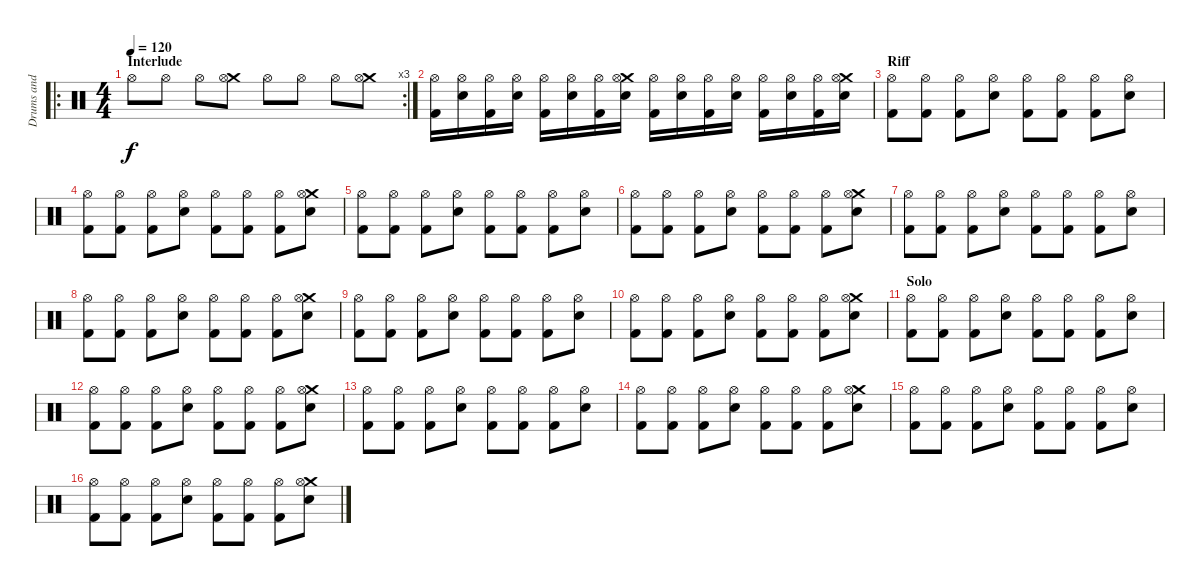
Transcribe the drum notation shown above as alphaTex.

\track ("Drums and Percussion" "Drums and ") {instrument percussion}
\staff {score}
\articulation defaults
\ro
\rc 3
\ts (4 4)
\section ("" "Interlude")
\tempo 120
\clef neutral
\ks c "Hi-Hat (open)".8{dy f} "Hi-Hat (open)".8 "Hi-Hat (open)".8
("Crash medium (hit)" "Hi-Hat (open)").8 "Hi-Hat (open)".8 "Hi-Hat (open)".8 "Hi-Hat (open)".8 ("Crash medium (hit)" "Hi-Hat (open)").8 |
("Hi-Hat (open)" "Kick (hit) 2").16 ("Hi-Hat (open)" "Electric Snare (hit)").16 ("Hi-Hat (open)" "Kick (hit) 2").16 ("Hi-Hat (open)" "Electric Snare (hit)").16 ("Hi-Hat (open)" "Kick (hit) 2").16 ("Hi-Hat (open)" "Electric Snare (hit)").16 ("Hi-Hat (open)" "Kick (hit) 2").16 ("Crash medium (hit)" "Hi-Hat (open)" "Electric Snare (hit)").16 ("Hi-Hat (open)" "Kick (hit) 2").16 ("Hi-Hat (open)" "Electric Snare (hit)").16 ("Hi-Hat (open)" "Kick (hit) 2").16 ("Hi-Hat (open)" "Electric Snare (hit)").16 ("Hi-Hat (open)" "Kick (hit) 2").16 ("Hi-Hat (open)" "Electric Snare (hit)").16 ("Hi-Hat (open)" "Kick (hit) 2").16 ("Crash medium (hit)" "Hi-Hat (open)" "Electric Snare (hit)").16 |
\section ("" "Riff")
("Hi-Hat (open)" "Kick (hit) 2").8 ("Hi-Hat (open)" "Kick (hit) 2").8 ("Hi-Hat (open)" "Kick (hit) 2").8 ("Hi-Hat (open)" "Electric Snare (hit)").8 ("Hi-Hat (open)" "Kick (hit) 2").8 ("Hi-Hat (open)" "Kick (hit) 2").8 ("Hi-Hat (open)" "Kick (hit) 2").8 ("Hi-Hat (open)" "Electric Snare (hit)").8 |
("Hi-Hat (open)" "Kick (hit) 2").8 ("Hi-Hat (open)" "Kick (hit) 2").8 ("Hi-Hat (open)" "Kick (hit) 2").8 ("Hi-Hat (open)" "Electric Snare (hit)").8 ("Hi-Hat (open)" "Kick (hit) 2").8 ("Hi-Hat (open)" "Kick (hit) 2").8 ("Hi-Hat (open)" "Kick (hit) 2").8 ("Crash medium (hit)" "Hi-Hat (open)" "Electric Snare (hit)").8 |
("Hi-Hat (open)" "Kick (hit) 2").8 ("Hi-Hat (open)" "Kick (hit) 2").8 ("Hi-Hat (open)" "Kick (hit) 2").8 ("Hi-Hat (open)" "Electric Snare (hit)").8 ("Hi-Hat (open)" "Kick (hit) 2").8 ("Hi-Hat (open)" "Kick (hit) 2").8 ("Hi-Hat (open)" "Kick (hit) 2").8 ("Hi-Hat (open)" "Electric Snare (hit)").8 |
("Hi-Hat (open)" "Kick (hit) 2").8 ("Hi-Hat (open)" "Kick (hit) 2").8 ("Hi-Hat (open)" "Kick (hit) 2").8 ("Hi-Hat (open)" "Electric Snare (hit)").8 ("Hi-Hat (open)" "Kick (hit) 2").8 ("Hi-Hat (open)" "Kick (hit) 2").8 ("Hi-Hat (open)" "Kick (hit) 2").8 ("Crash medium (hit)" "Hi-Hat (open)" "Electric Snare (hit)").8 |
("Hi-Hat (open)" "Kick (hit) 2").8 ("Hi-Hat (open)" "Kick (hit) 2").8 ("Hi-Hat (open)" "Kick (hit) 2").8 ("Hi-Hat (open)" "Electric Snare (hit)").8 ("Hi-Hat (open)" "Kick (hit) 2").8 ("Hi-Hat (open)" "Kick (hit) 2").8 ("Hi-Hat (open)" "Kick (hit) 2").8 ("Hi-Hat (open)" "Electric Snare (hit)").8 |
("Hi-Hat (open)" "Kick (hit) 2").8 ("Hi-Hat (open)" "Kick (hit) 2").8 ("Hi-Hat (open)" "Kick (hit) 2").8 ("Hi-Hat (open)" "Electric Snare (hit)").8 ("Hi-Hat (open)" "Kick (hit) 2").8 ("Hi-Hat (open)" "Kick (hit) 2").8 ("Hi-Hat (open)" "Kick (hit) 2").8 ("Crash medium (hit)" "Hi-Hat (open)" "Electric Snare (hit)").8 |
("Hi-Hat (open)" "Kick (hit) 2").8 ("Hi-Hat (open)" "Kick (hit) 2").8 ("Hi-Hat (open)" "Kick (hit) 2").8 ("Hi-Hat (open)" "Electric Snare (hit)").8 ("Hi-Hat (open)" "Kick (hit) 2").8 ("Hi-Hat (open)" "Kick (hit) 2").8 ("Hi-Hat (open)" "Kick (hit) 2").8 ("Hi-Hat (open)" "Electric Snare (hit)").8 |
("Hi-Hat (open)" "Kick (hit) 2").8 ("Hi-Hat (open)" "Kick (hit) 2").8 ("Hi-Hat (open)" "Kick (hit) 2").8 ("Hi-Hat (open)" "Electric Snare (hit)").8 ("Hi-Hat (open)" "Kick (hit) 2").8 ("Hi-Hat (open)" "Kick (hit) 2").8 ("Hi-Hat (open)" "Kick (hit) 2").8 ("Crash medium (hit)" "Hi-Hat (open)" "Electric Snare (hit)").8 |
\section ("" "Solo")
("Hi-Hat (open)" "Kick (hit) 2").8 ("Hi-Hat (open)" "Kick (hit) 2").8 ("Hi-Hat (open)" "Kick (hit) 2").8 ("Hi-Hat (open)" "Electric Snare (hit)").8 ("Hi-Hat (open)" "Kick (hit) 2").8 ("Hi-Hat (open)" "Kick (hit) 2").8 ("Hi-Hat (open)" "Kick (hit) 2").8 ("Hi-Hat (open)" "Electric Snare (hit)").8 |
("Hi-Hat (open)" "Kick (hit) 2").8 ("Hi-Hat (open)" "Kick (hit) 2").8 ("Hi-Hat (open)" "Kick (hit) 2").8 ("Hi-Hat (open)" "Electric Snare (hit)").8 ("Hi-Hat (open)" "Kick (hit) 2").8 ("Hi-Hat (open)" "Kick (hit) 2").8 ("Hi-Hat (open)" "Kick (hit) 2").8 ("Crash medium (hit)" "Hi-Hat (open)" "Electric Snare (hit)").8 |
("Hi-Hat (open)" "Kick (hit) 2").8 ("Hi-Hat (open)" "Kick (hit) 2").8 ("Hi-Hat (open)" "Kick (hit) 2").8 ("Hi-Hat (open)" "Electric Snare (hit)").8 ("Hi-Hat (open)" "Kick (hit) 2").8 ("Hi-Hat (open)" "Kick (hit) 2").8 ("Hi-Hat (open)" "Kick (hit) 2").8 ("Hi-Hat (open)" "Electric Snare (hit)").8 |
("Hi-Hat (open)" "Kick (hit) 2").8 ("Hi-Hat (open)" "Kick (hit) 2").8 ("Hi-Hat (open)" "Kick (hit) 2").8 ("Hi-Hat (open)" "Electric Snare (hit)").8 ("Hi-Hat (open)" "Kick (hit) 2").8 ("Hi-Hat (open)" "Kick (hit) 2").8 ("Hi-Hat (open)" "Kick (hit) 2").8 ("Crash medium (hit)" "Hi-Hat (open)" "Electric Snare (hit)").8 |
("Hi-Hat (open)" "Kick (hit) 2").8 ("Hi-Hat (open)" "Kick (hit) 2").8 ("Hi-Hat (open)" "Kick (hit) 2").8 ("Hi-Hat (open)" "Electric Snare (hit)").8 ("Hi-Hat (open)" "Kick (hit) 2").8 ("Hi-Hat (open)" "Kick (hit) 2").8 ("Hi-Hat (open)" "Kick (hit) 2").8 ("Hi-Hat (open)" "Electric Snare (hit)").8 |
("Hi-Hat (open)" "Kick (hit) 2").8 ("Hi-Hat (open)" "Kick (hit) 2").8 ("Hi-Hat (open)" "Kick (hit) 2").8 ("Hi-Hat (open)" "Electric Snare (hit)").8 ("Hi-Hat (open)" "Kick (hit) 2").8 ("Hi-Hat (open)" "Kick (hit) 2").8 ("Hi-Hat (open)" "Kick (hit) 2").8 ("Crash medium (hit)" "Hi-Hat (open)" "Electric Snare (hit)").8
